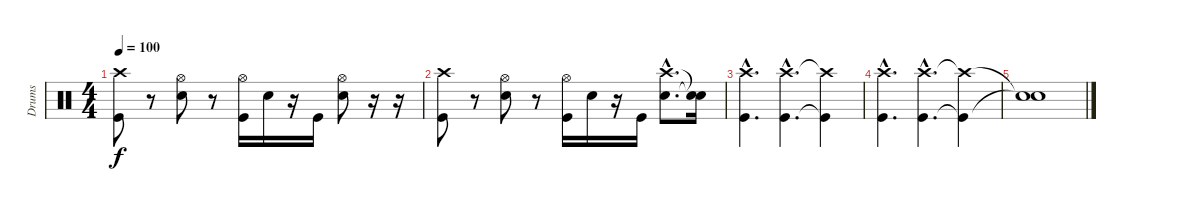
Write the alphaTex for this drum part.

\track ("Drums" "Drums") {instrument percussion}
\staff {score}
\articulation defaults
\ts (4 4)
\tempo 100
\clef neutral
\ks c
("Crash high (hit)" "Kick (hit)").8{dy f} r.8 ("Hi-Hat (open)" "Snare (hit) 2").8 r.8 ("Hi-Hat (open)" "Kick (hit)").16 "Snare (hit) 2".16 r.16 "Kick (hit)".16 ("Hi-Hat (open)" "Snare (hit) 2").8 r.16 r.16 |
("Crash high (hit)" "Kick (hit)").8 r.8 ("Hi-Hat (open)" "Snare (hit) 2").8 r.8 ("Hi-Hat (open)" "Kick (hit)").16 "Snare (hit) 2".16 r.16 "Kick (hit)".16 ("Crash high (hit)"{hac} "Snare (hit) 2"{hac}).8{d} ("Snare (hit)"{t} "Snare (hit)"{t}).16 |
("Crash high (hit)"{hac} "Kick (hit)"{hac}).4{d} ("Crash high (hit)"{hac} "Kick (hit)"{hac}).4{d} ("Crash high (hit)"{t} "Kick (hit)"{t}).4 |
("Crash high (hit)"{hac} "Kick (hit)"{hac}).4{d} ("Crash high (hit)"{hac} "Kick (hit)"{hac}).4{d} ("Crash high (hit)"{t} "Kick (hit)"{t}).4 |
("Snare (hit)"{t} "Snare (hit)"{t}).1
